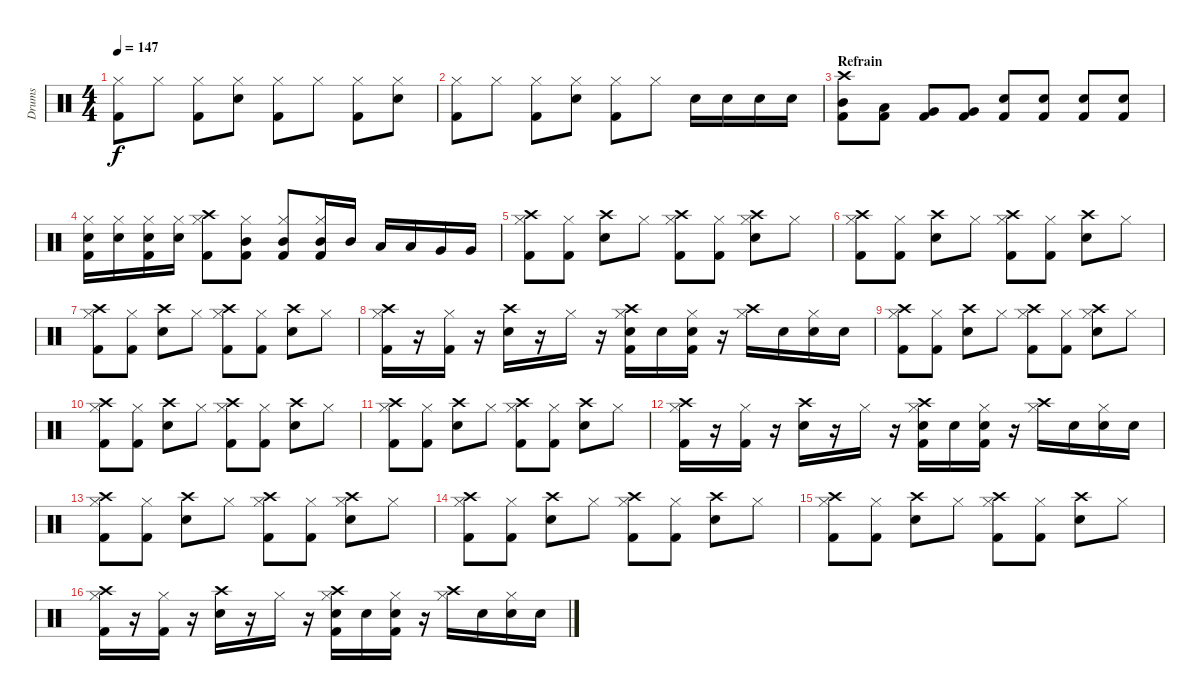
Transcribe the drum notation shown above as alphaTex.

\track ("Drums" "Drums") {instrument percussion}
\staff {score}
\articulation defaults
\ts (4 4)
\tempo 147
\clef neutral
\ks c
("Kick (hit) 2" "Hi-Hat (closed)").8{dy f} "Hi-Hat (closed)".8 ("Kick (hit) 2" "Hi-Hat (closed)").8 ("Electric Snare (hit)" "Hi-Hat (closed)").8 ("Kick (hit) 2" "Hi-Hat (closed)").8 "Hi-Hat (closed)".8 ("Kick (hit) 2" "Hi-Hat (closed)").8 ("Electric Snare (hit)" "Hi-Hat (closed)").8 |
("Kick (hit) 2" "Hi-Hat (closed)").8 "Hi-Hat (closed)".8 ("Kick (hit) 2" "Hi-Hat (closed)").8 ("Electric Snare (hit)" "Hi-Hat (closed)").8 ("Kick (hit) 2" "Hi-Hat (closed)").8 "Hi-Hat (closed)".8 "Electric Snare (hit)".16 "Electric Snare (hit)".16 "Electric Snare (hit)".16 "Electric Snare (hit)".16 |
\section ("" "Refrain")
("Kick (hit) 2" "Mid Tom (hit)" "Crash high (hit)").8 ("Kick (hit) 2" "Low Tom (hit)").8 ("Kick (hit) 2" "Very Low Tom (hit)").8 ("Kick (hit) 2" "Very Low Tom (hit)").8 ("Kick (hit) 2" "Electric Snare (hit)").8 ("Kick (hit) 2" "Electric Snare (hit)").8 ("Kick (hit) 2" "Electric Snare (hit)").8 ("Kick (hit) 2" "Electric Snare (hit)").8 |
("Kick (hit) 2" "Electric Snare (hit)" "Hi-Hat (closed)").16 ("Electric Snare (hit)" "Hi-Hat (closed)").16 ("Kick (hit) 2" "Electric Snare (hit)" "Hi-Hat (closed)").16 ("Electric Snare (hit)" "Hi-Hat (closed)").16 ("Kick (hit) 2" "Hi-Hat (closed)" "Crash high (hit)").8 ("Kick (hit) 2" "Mid Tom (hit)" "Hi-Hat (closed)").8 ("Kick (hit) 2" "Mid Tom (hit)" "Hi-Hat (closed)").8 ("Kick (hit) 2" "Mid Tom (hit)" "Hi-Hat (closed)").16 "Mid Tom (hit)".16 "Low Tom (hit)".16 "Low Tom (hit)".16 "Very Low Tom (hit)".16 "Very Low Tom (hit)".16 |
("Kick (hit) 2" "Hi-Hat (closed)" "Crash high (hit)").8 ("Kick (hit) 2" "Hi-Hat (closed)").8 ("Electric Snare (hit)" "Crash high (hit)").8 "Hi-Hat (closed)".8 ("Kick (hit) 2" "Hi-Hat (closed)" "Crash high (hit)").8 ("Kick (hit) 2" "Hi-Hat (closed)").8 ("Electric Snare (hit)" "Hi-Hat (closed)" "Crash high (hit)").8 "Hi-Hat (closed)".8 |
("Kick (hit) 2" "Hi-Hat (closed)" "Crash high (hit)").8 ("Kick (hit) 2" "Hi-Hat (closed)").8 ("Electric Snare (hit)" "Crash high (hit)").8 "Hi-Hat (closed)".8 ("Kick (hit) 2" "Hi-Hat (closed)" "Crash high (hit)").8 ("Kick (hit) 2" "Hi-Hat (closed)").8 ("Electric Snare (hit)" "Crash high (hit)").8 "Hi-Hat (closed)".8 |
("Kick (hit) 2" "Hi-Hat (closed)" "Crash high (hit)").8 ("Kick (hit) 2" "Hi-Hat (closed)").8 ("Electric Snare (hit)" "Crash high (hit)").8 "Hi-Hat (closed)".8 ("Kick (hit) 2" "Hi-Hat (closed)" "Crash high (hit)").8 ("Kick (hit) 2" "Hi-Hat (closed)").8 ("Electric Snare (hit)" "Crash high (hit)").8 "Hi-Hat (closed)".8 |
("Kick (hit) 2" "Hi-Hat (closed)" "Crash high (hit)").16 r.16 ("Kick (hit) 2" "Hi-Hat (closed)").16 r.16 ("Electric Snare (hit)" "Crash high (hit)").16 r.16 "Hi-Hat (closed)".16 r.16 ("Kick (hit) 2" "Electric Snare (hit)" "Hi-Hat (closed)" "Crash high (hit)").16 "Electric Snare (hit)".16 ("Kick (hit) 2" "Electric Snare (hit)" "Hi-Hat (closed)").16 r.16 ("Hi-Hat (closed)" "Crash high (hit)").16 "Electric Snare (hit)".16 ("Electric Snare (hit)" "Hi-Hat (closed)").16 "Electric Snare (hit)".16 |
("Kick (hit) 2" "Hi-Hat (closed)" "Crash high (hit)").8 ("Kick (hit) 2" "Hi-Hat (closed)").8 ("Electric Snare (hit)" "Crash high (hit)").8 "Hi-Hat (closed)".8 ("Kick (hit) 2" "Hi-Hat (closed)" "Crash high (hit)").8 ("Kick (hit) 2" "Hi-Hat (closed)").8 ("Electric Snare (hit)" "Hi-Hat (closed)" "Crash high (hit)").8 "Hi-Hat (closed)".8 |
("Kick (hit) 2" "Hi-Hat (closed)" "Crash high (hit)").8 ("Kick (hit) 2" "Hi-Hat (closed)").8 ("Electric Snare (hit)" "Crash high (hit)").8 "Hi-Hat (closed)".8 ("Kick (hit) 2" "Hi-Hat (closed)" "Crash high (hit)").8 ("Kick (hit) 2" "Hi-Hat (closed)").8 ("Electric Snare (hit)" "Crash high (hit)").8 "Hi-Hat (closed)".8 |
("Kick (hit) 2" "Hi-Hat (closed)" "Crash high (hit)").8 ("Kick (hit) 2" "Hi-Hat (closed)").8 ("Electric Snare (hit)" "Crash high (hit)").8 "Hi-Hat (closed)".8 ("Kick (hit) 2" "Hi-Hat (closed)" "Crash high (hit)").8 ("Kick (hit) 2" "Hi-Hat (closed)").8 ("Electric Snare (hit)" "Crash high (hit)").8 "Hi-Hat (closed)".8 |
("Kick (hit) 2" "Hi-Hat (closed)" "Crash high (hit)").16 r.16 ("Kick (hit) 2" "Hi-Hat (closed)").16 r.16 ("Electric Snare (hit)" "Crash high (hit)").16 r.16 "Hi-Hat (closed)".16 r.16 ("Kick (hit) 2" "Electric Snare (hit)" "Hi-Hat (closed)" "Crash high (hit)").16 "Electric Snare (hit)".16 ("Kick (hit) 2" "Electric Snare (hit)" "Hi-Hat (closed)").16 r.16 ("Hi-Hat (closed)" "Crash high (hit)").16 "Electric Snare (hit)".16 ("Electric Snare (hit)" "Hi-Hat (closed)").16 "Electric Snare (hit)".16 |
("Kick (hit) 2" "Hi-Hat (closed)" "Crash high (hit)").8 ("Kick (hit) 2" "Hi-Hat (closed)").8 ("Electric Snare (hit)" "Crash high (hit)").8 "Hi-Hat (closed)".8 ("Kick (hit) 2" "Hi-Hat (closed)" "Crash high (hit)").8 ("Kick (hit) 2" "Hi-Hat (closed)").8 ("Electric Snare (hit)" "Hi-Hat (closed)" "Crash high (hit)").8 "Hi-Hat (closed)".8 |
("Kick (hit) 2" "Hi-Hat (closed)" "Crash high (hit)").8 ("Kick (hit) 2" "Hi-Hat (closed)").8 ("Electric Snare (hit)" "Crash high (hit)").8 "Hi-Hat (closed)".8 ("Kick (hit) 2" "Hi-Hat (closed)" "Crash high (hit)").8 ("Kick (hit) 2" "Hi-Hat (closed)").8 ("Electric Snare (hit)" "Crash high (hit)").8 "Hi-Hat (closed)".8 |
("Kick (hit) 2" "Hi-Hat (closed)" "Crash high (hit)").8 ("Kick (hit) 2" "Hi-Hat (closed)").8 ("Electric Snare (hit)" "Crash high (hit)").8 "Hi-Hat (closed)".8 ("Kick (hit) 2" "Hi-Hat (closed)" "Crash high (hit)").8 ("Kick (hit) 2" "Hi-Hat (closed)").8 ("Electric Snare (hit)" "Crash high (hit)").8 "Hi-Hat (closed)".8 |
("Kick (hit) 2" "Hi-Hat (closed)" "Crash high (hit)").16 r.16 ("Kick (hit) 2" "Hi-Hat (closed)").16 r.16 ("Electric Snare (hit)" "Crash high (hit)").16 r.16 "Hi-Hat (closed)".16 r.16 ("Kick (hit) 2" "Electric Snare (hit)" "Hi-Hat (closed)" "Crash high (hit)").16 "Electric Snare (hit)".16 ("Kick (hit) 2" "Electric Snare (hit)" "Hi-Hat (closed)").16 r.16 ("Hi-Hat (closed)" "Crash high (hit)").16 "Electric Snare (hit)".16 ("Electric Snare (hit)" "Hi-Hat (closed)").16 "Electric Snare (hit)".16
